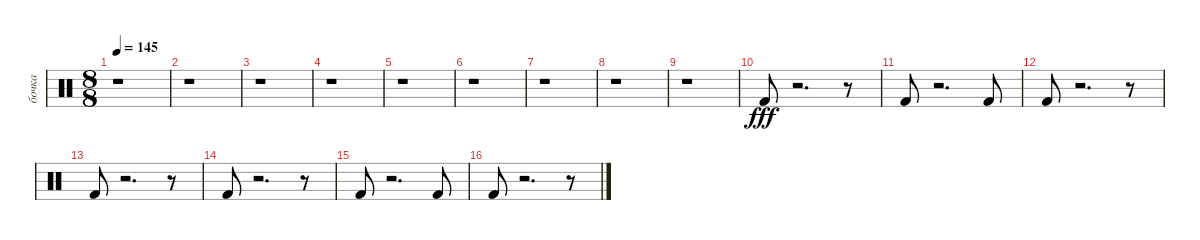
\track ("бочка" "бочка") {instrument percussion}
\staff {score}
\articulation defaults
\ts (8 8)
\tempo 145
\clef neutral
\ks c
r.1{dy fff} |
r.1 |
r.1 |
r.1 |
r.1 |
r.1 |
r.1 |
r.1 |
r.1 |
"Kick (hit) 2".8 r.2{d} r.8 |
"Kick (hit) 2".8 r.2{d} "Kick (hit) 2".8 |
"Kick (hit) 2".8 r.2{d} r.8 |
"Kick (hit) 2".8 r.2{d} r.8 |
"Kick (hit) 2".8 r.2{d} r.8 |
"Kick (hit) 2".8 r.2{d} "Kick (hit) 2".8 |
"Kick (hit) 2".8 r.2{d} r.8
